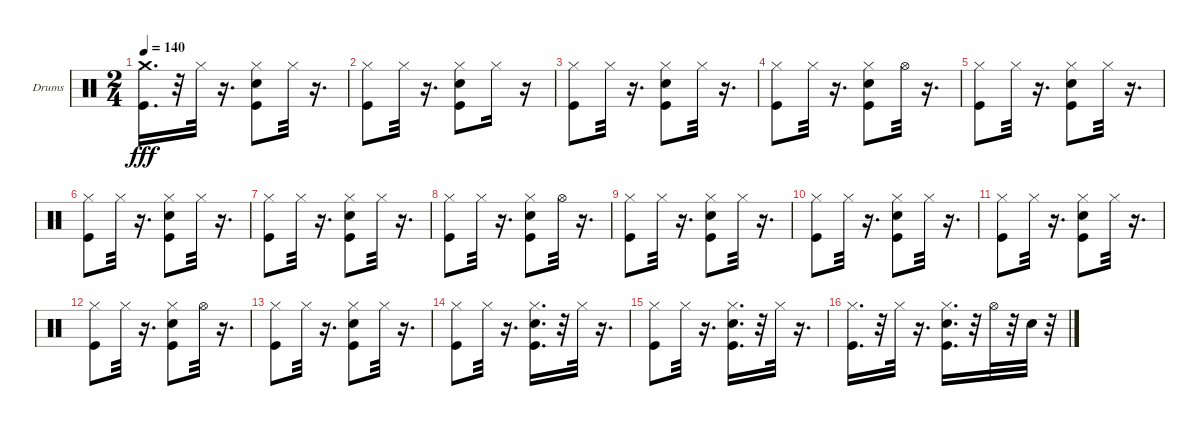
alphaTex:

\bracketExtendMode groupsimilarinstruments
\firstSystemTrackNameOrientation horizontal
\otherSystemsTrackNameOrientation horizontal
\track ("Ударные" "Drums") {instrument percussion}
\staff {score}
\articulation defaults
\ts (2 4)
\tempo 140
\clef neutral
\ks c
("Kick (hit)" "Crash medium (hit)").16{d dy fff} r.32 "Hi-Hat (closed)".32 r.16{d} ("Kick (hit)" "Snare (hit) 2" "Hi-Hat (closed)").8 "Hi-Hat (closed)".32 r.16{d} |
("Kick (hit)" "Hi-Hat (closed)").8 "Hi-Hat (closed)".32 r.16{d} ("Snare (hit) 2" "Kick (hit)" "Hi-Hat (closed)").8 "Hi-Hat (closed)".16 r.16 |
("Kick (hit)" "Hi-Hat (closed)").8 "Hi-Hat (closed)".32 r.16{d} ("Hi-Hat (closed)" "Snare (hit) 2" "Kick (hit)").8 "Hi-Hat (closed)".32 r.16{d} |
("Kick (hit)" "Hi-Hat (closed)").8 "Hi-Hat (closed)".32 r.16{d} ("Snare (hit) 2" "Hi-Hat (closed)" "Kick (hit)").8 "Hi-Hat (open)".32 r.16{d} |
("Kick (hit)" "Hi-Hat (closed)").8 "Hi-Hat (closed)".32 r.16{d} ("Kick (hit)" "Hi-Hat (closed)" "Snare (hit) 2").8 "Hi-Hat (closed)".32 r.16{d} |
("Kick (hit)" "Hi-Hat (closed)").8 "Hi-Hat (closed)".32 r.16{d} ("Kick (hit)" "Hi-Hat (closed)" "Snare (hit) 2").8 "Hi-Hat (closed)".32 r.16{d} |
("Kick (hit)" "Hi-Hat (closed)").8 "Hi-Hat (closed)".32 r.16{d} ("Snare (hit) 2" "Kick (hit)" "Hi-Hat (closed)").8 "Hi-Hat (closed)".32 r.16{d} |
("Kick (hit)" "Hi-Hat (closed)").8 "Hi-Hat (closed)".32 r.16{d} ("Snare (hit) 2" "Hi-Hat (closed)" "Kick (hit)").8 "Hi-Hat (open)".32 r.16{d} |
("Kick (hit)" "Hi-Hat (closed)").8 "Hi-Hat (closed)".32 r.16{d} ("Snare (hit) 2" "Kick (hit)" "Hi-Hat (closed)").8 "Hi-Hat (closed)".32 r.16{d} |
("Kick (hit)" "Hi-Hat (closed)").8 "Hi-Hat (closed)".32 r.16{d} ("Snare (hit) 2" "Kick (hit)" "Hi-Hat (closed)").8 "Hi-Hat (closed)".32 r.16{d} |
("Kick (hit)" "Hi-Hat (closed)").8 "Hi-Hat (closed)".32 r.16{d} ("Kick (hit)" "Hi-Hat (closed)" "Snare (hit) 2").8 "Hi-Hat (closed)".32 r.16{d} |
("Kick (hit)" "Hi-Hat (closed)").8 "Hi-Hat (closed)".32 r.16{d} ("Hi-Hat (closed)" "Snare (hit) 2" "Kick (hit)").8 "Hi-Hat (open)".32 r.16{d} |
("Kick (hit)" "Hi-Hat (closed)").8 "Hi-Hat (closed)".32 r.16{d} ("Kick (hit)" "Hi-Hat (closed)" "Snare (hit) 2").8 "Hi-Hat (closed)".32 r.16{d} |
("Kick (hit)" "Hi-Hat (closed)").8 "Hi-Hat (closed)".32 r.16{d} ("Hi-Hat (closed)" "Snare (hit) 2" "Kick (hit)").16{d} r.32 "Hi-Hat (closed)".32 r.16{d} |
("Kick (hit)" "Hi-Hat (closed)").8 "Hi-Hat (closed)".32 r.16{d} ("Hi-Hat (closed)" "Kick (hit)" "Snare (hit) 2").16{d} r.32 "Hi-Hat (closed)".32 r.16{d} |
("Kick (hit)" "Hi-Hat (closed)").16{d} r.32 "Hi-Hat (closed)".32 r.16{d} ("Snare (hit) 2" "Kick (hit)" "Hi-Hat (closed)").16{d} r.32 "Hi-Hat (open)".32 r.32 "Snare (hit) 2".32 r.32
